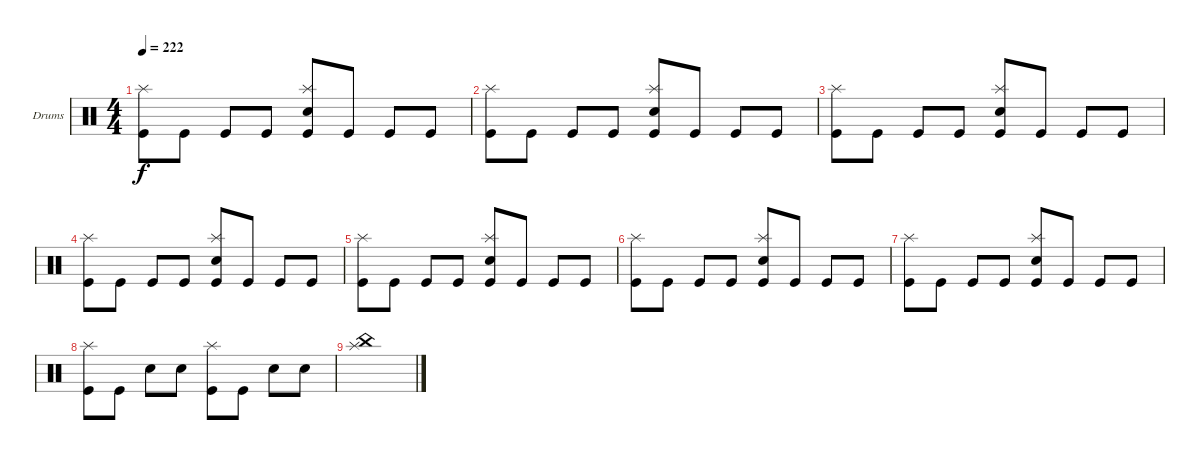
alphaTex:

\defaultSystemsLayout 4
\bracketExtendMode groupsimilarinstruments
\firstSystemTrackNameOrientation horizontal
\otherSystemsTrackNameOrientation horizontal
\track ("Drumkit" "Drums") {mute instrument percussion}
\staff {score}
\articulation defaults
\ts (4 4)
\tempo 222
\clef neutral
\ks c
("Kick (hit)" "Splash (hit)").8{dy f} "Kick (hit)".8 "Kick (hit)".8 "Kick (hit)".8 ("Kick (hit)" "Splash (hit)" "Snare (hit) 2").8 "Kick (hit)".8 "Kick (hit)".8 "Kick (hit)".8 |
("Kick (hit)" "Splash (hit)").8 "Kick (hit)".8 "Kick (hit)".8 "Kick (hit)".8 ("Kick (hit)" "Splash (hit)" "Snare (hit) 2").8 "Kick (hit)".8 "Kick (hit)".8 "Kick (hit)".8 |
("Kick (hit)" "Splash (hit)").8 "Kick (hit)".8 "Kick (hit)".8 "Kick (hit)".8 ("Kick (hit)" "Splash (hit)" "Snare (hit) 2").8 "Kick (hit)".8 "Kick (hit)".8 "Kick (hit)".8 |
("Kick (hit)" "Splash (hit)").8 "Kick (hit)".8 "Kick (hit)".8 "Kick (hit)".8 ("Kick (hit)" "Splash (hit)" "Snare (hit) 2").8 "Kick (hit)".8 "Kick (hit)".8 "Kick (hit)".8 |
("Kick (hit)" "Splash (hit)").8 "Kick (hit)".8 "Kick (hit)".8 "Kick (hit)".8 ("Kick (hit)" "Splash (hit)" "Snare (hit) 2").8 "Kick (hit)".8 "Kick (hit)".8 "Kick (hit)".8 |
("Kick (hit)" "Splash (hit)").8 "Kick (hit)".8 "Kick (hit)".8 "Kick (hit)".8 ("Kick (hit)" "Splash (hit)" "Snare (hit) 2").8 "Kick (hit)".8 "Kick (hit)".8 "Kick (hit)".8 |
("Kick (hit)" "Splash (hit)").8 "Kick (hit)".8 "Kick (hit)".8 "Kick (hit)".8 ("Kick (hit)" "Splash (hit)" "Snare (hit) 2").8 "Kick (hit)".8 "Kick (hit)".8 "Kick (hit)".8 |
("Kick (hit)" "Splash (hit)").8 "Kick (hit)".8 "Snare (hit) 2".8 "Snare (hit) 2".8 ("Kick (hit)" "Splash (hit)").8 "Kick (hit)".8 "Snare (hit) 2".8 "Snare (hit) 2".8 |
("Splash (hit)" "China (hit)").1
